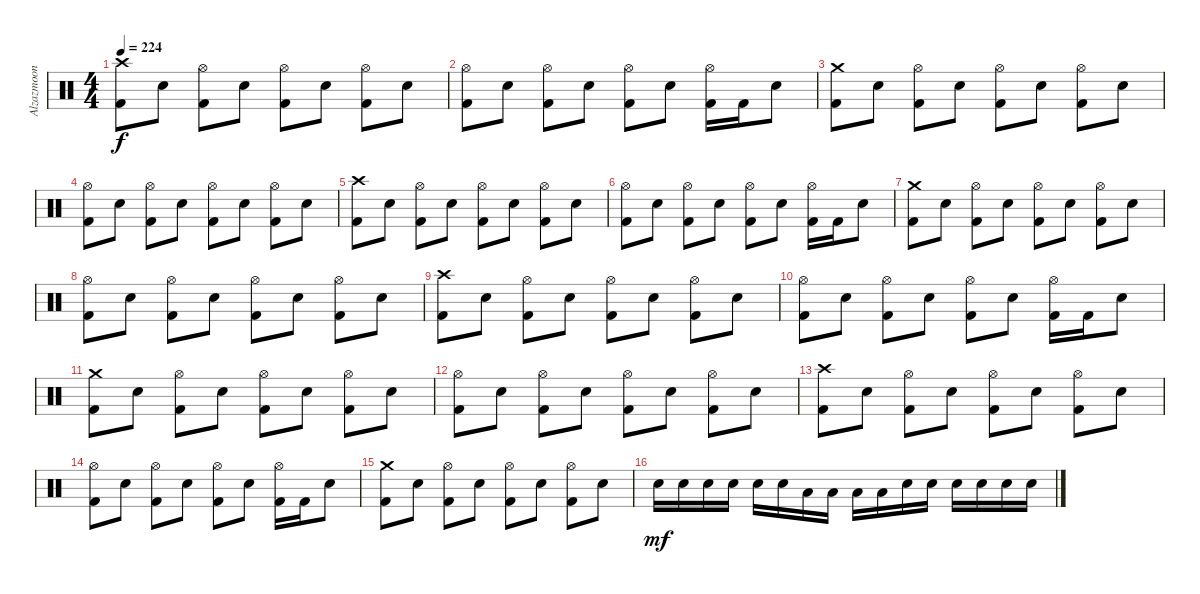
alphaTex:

\track ("Alzazmoon" "Alzazmoon") {instrument percussion}
\staff {score}
\articulation defaults
\ts (4 4)
\tempo 224
\clef neutral
\ks c
("Crash high (hit)" "Kick (hit) 2").8{dy f} "Snare (hit) 2".8 ("Hi-Hat (open)" "Kick (hit) 2").8 "Snare (hit) 2".8 ("Hi-Hat (open)" "Kick (hit) 2").8 "Snare (hit) 2".8 ("Hi-Hat (open)" "Kick (hit) 2").8 "Snare (hit) 2".8 |
("Hi-Hat (open)" "Kick (hit) 2").8 "Snare (hit) 2".8 ("Hi-Hat (open)" "Kick (hit) 2").8 "Snare (hit) 2".8 ("Hi-Hat (open)" "Kick (hit) 2").8 "Snare (hit) 2".8 ("Hi-Hat (open)" "Kick (hit) 2").16 "Kick (hit) 2".16 "Snare (hit) 2".8 |
("Crash medium (hit)" "Kick (hit) 2").8 "Snare (hit) 2".8 ("Hi-Hat (open)" "Kick (hit) 2").8 "Snare (hit) 2".8 ("Hi-Hat (open)" "Kick (hit) 2").8 "Snare (hit) 2".8 ("Hi-Hat (open)" "Kick (hit) 2").8 "Snare (hit) 2".8 |
("Hi-Hat (open)" "Kick (hit) 2").8 "Snare (hit) 2".8 ("Hi-Hat (open)" "Kick (hit) 2").8 "Snare (hit) 2".8 ("Hi-Hat (open)" "Kick (hit) 2").8 "Snare (hit) 2".8 ("Hi-Hat (open)" "Kick (hit) 2").8 "Snare (hit) 2".8 |
("Crash high (hit)" "Kick (hit) 2").8 "Snare (hit) 2".8 ("Hi-Hat (open)" "Kick (hit) 2").8 "Snare (hit) 2".8 ("Hi-Hat (open)" "Kick (hit) 2").8 "Snare (hit) 2".8 ("Hi-Hat (open)" "Kick (hit) 2").8 "Snare (hit) 2".8 |
("Hi-Hat (open)" "Kick (hit) 2").8 "Snare (hit) 2".8 ("Hi-Hat (open)" "Kick (hit) 2").8 "Snare (hit) 2".8 ("Hi-Hat (open)" "Kick (hit) 2").8 "Snare (hit) 2".8 ("Hi-Hat (open)" "Kick (hit) 2").16 "Kick (hit) 2".16 "Snare (hit) 2".8 |
("Crash medium (hit)" "Kick (hit) 2").8 "Snare (hit) 2".8 ("Hi-Hat (open)" "Kick (hit) 2").8 "Snare (hit) 2".8 ("Hi-Hat (open)" "Kick (hit) 2").8 "Snare (hit) 2".8 ("Hi-Hat (open)" "Kick (hit) 2").8 "Snare (hit) 2".8 |
("Hi-Hat (open)" "Kick (hit) 2").8 "Snare (hit) 2".8 ("Hi-Hat (open)" "Kick (hit) 2").8 "Snare (hit) 2".8 ("Hi-Hat (open)" "Kick (hit) 2").8 "Snare (hit) 2".8 ("Hi-Hat (open)" "Kick (hit) 2").8 "Snare (hit) 2".8 |
("Crash high (hit)" "Kick (hit) 2").8 "Snare (hit) 2".8 ("Hi-Hat (open)" "Kick (hit) 2").8 "Snare (hit) 2".8 ("Hi-Hat (open)" "Kick (hit) 2").8 "Snare (hit) 2".8 ("Hi-Hat (open)" "Kick (hit) 2").8 "Snare (hit) 2".8 |
("Hi-Hat (open)" "Kick (hit) 2").8 "Snare (hit) 2".8 ("Hi-Hat (open)" "Kick (hit) 2").8 "Snare (hit) 2".8 ("Hi-Hat (open)" "Kick (hit) 2").8 "Snare (hit) 2".8 ("Hi-Hat (open)" "Kick (hit) 2").16 "Kick (hit) 2".16 "Snare (hit) 2".8 |
("Crash medium (hit)" "Kick (hit) 2").8 "Snare (hit) 2".8 ("Hi-Hat (open)" "Kick (hit) 2").8 "Snare (hit) 2".8 ("Hi-Hat (open)" "Kick (hit) 2").8 "Snare (hit) 2".8 ("Hi-Hat (open)" "Kick (hit) 2").8 "Snare (hit) 2".8 |
("Hi-Hat (open)" "Kick (hit) 2").8 "Snare (hit) 2".8 ("Hi-Hat (open)" "Kick (hit) 2").8 "Snare (hit) 2".8 ("Hi-Hat (open)" "Kick (hit) 2").8 "Snare (hit) 2".8 ("Hi-Hat (open)" "Kick (hit) 2").8 "Snare (hit) 2".8 |
("Crash high (hit)" "Kick (hit) 2").8 "Snare (hit) 2".8 ("Hi-Hat (open)" "Kick (hit) 2").8 "Snare (hit) 2".8 ("Hi-Hat (open)" "Kick (hit) 2").8 "Snare (hit) 2".8 ("Hi-Hat (open)" "Kick (hit) 2").8 "Snare (hit) 2".8 |
("Hi-Hat (open)" "Kick (hit) 2").8 "Snare (hit) 2".8 ("Hi-Hat (open)" "Kick (hit) 2").8 "Snare (hit) 2".8 ("Hi-Hat (open)" "Kick (hit) 2").8 "Snare (hit) 2".8 ("Hi-Hat (open)" "Kick (hit) 2").16 "Kick (hit) 2".16 "Snare (hit) 2".8 |
("Crash medium (hit)" "Kick (hit) 2").8 "Snare (hit) 2".8 ("Hi-Hat (open)" "Kick (hit) 2").8 "Snare (hit) 2".8 ("Hi-Hat (open)" "Kick (hit) 2").8 "Snare (hit) 2".8 ("Hi-Hat (open)" "Kick (hit) 2").8 "Snare (hit) 2".8 |
"Snare (hit) 2".16{dy mf} "Snare (hit) 2".16 "Snare (hit) 2".16 "Snare (hit) 2".16 "Snare (hit) 2".16 "Snare (hit) 2".16 "Low Tom (hit)".16 "Low Tom (hit)".16 "Low Tom (hit)".16 "Low Tom (hit)".16 "Snare (hit) 2".16 "Snare (hit) 2".16 "Snare (hit) 2".16 "Snare (hit) 2".16 "Snare (hit) 2".16 "Snare (hit) 2".16
